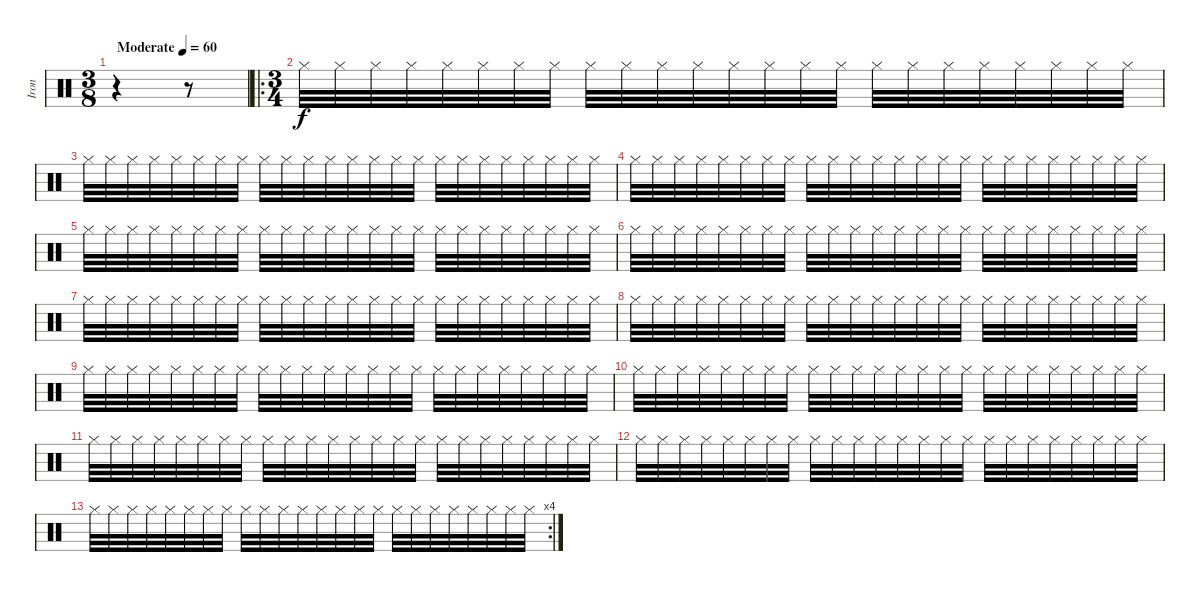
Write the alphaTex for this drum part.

\track ("Iron" "Iron") {instrument percussion}
\staff
\articulation defaults
\ts (3 8)
\tempo (60 "Moderate")
\clef neutral
\ks c
r.4{dy f} r.8 |
\ro
\ts (3 4)
"Hi-Hat (closed)".32 "Hi-Hat (closed)".32 "Hi-Hat (closed)".32 "Hi-Hat (closed)".32 "Hi-Hat (closed)".32 "Hi-Hat (closed)".32 "Hi-Hat (closed)".32 "Hi-Hat (closed)".32 "Hi-Hat (closed)".32 "Hi-Hat (closed)".32 "Hi-Hat (closed)".32 "Hi-Hat (closed)".32 "Hi-Hat (closed)".32 "Hi-Hat (closed)".32 "Hi-Hat (closed)".32 "Hi-Hat (closed)".32 "Hi-Hat (closed)".32 "Hi-Hat (closed)".32 "Hi-Hat (closed)".32 "Hi-Hat (closed)".32 "Hi-Hat (closed)".32 "Hi-Hat (closed)".32 "Hi-Hat (closed)".32 "Hi-Hat (closed)".32 |
"Hi-Hat (closed)".32 "Hi-Hat (closed)".32 "Hi-Hat (closed)".32 "Hi-Hat (closed)".32 "Hi-Hat (closed)".32 "Hi-Hat (closed)".32 "Hi-Hat (closed)".32 "Hi-Hat (closed)".32 "Hi-Hat (closed)".32 "Hi-Hat (closed)".32 "Hi-Hat (closed)".32 "Hi-Hat (closed)".32 "Hi-Hat (closed)".32 "Hi-Hat (closed)".32 "Hi-Hat (closed)".32 "Hi-Hat (closed)".32 "Hi-Hat (closed)".32 "Hi-Hat (closed)".32 "Hi-Hat (closed)".32 "Hi-Hat (closed)".32 "Hi-Hat (closed)".32 "Hi-Hat (closed)".32 "Hi-Hat (closed)".32 "Hi-Hat (closed)".32 |
"Hi-Hat (closed)".32 "Hi-Hat (closed)".32 "Hi-Hat (closed)".32 "Hi-Hat (closed)".32 "Hi-Hat (closed)".32 "Hi-Hat (closed)".32 "Hi-Hat (closed)".32 "Hi-Hat (closed)".32 "Hi-Hat (closed)".32 "Hi-Hat (closed)".32 "Hi-Hat (closed)".32 "Hi-Hat (closed)".32 "Hi-Hat (closed)".32 "Hi-Hat (closed)".32 "Hi-Hat (closed)".32 "Hi-Hat (closed)".32 "Hi-Hat (closed)".32 "Hi-Hat (closed)".32 "Hi-Hat (closed)".32 "Hi-Hat (closed)".32 "Hi-Hat (closed)".32 "Hi-Hat (closed)".32 "Hi-Hat (closed)".32 "Hi-Hat (closed)".32 |
"Hi-Hat (closed)".32 "Hi-Hat (closed)".32 "Hi-Hat (closed)".32 "Hi-Hat (closed)".32 "Hi-Hat (closed)".32 "Hi-Hat (closed)".32 "Hi-Hat (closed)".32 "Hi-Hat (closed)".32 "Hi-Hat (closed)".32 "Hi-Hat (closed)".32 "Hi-Hat (closed)".32 "Hi-Hat (closed)".32 "Hi-Hat (closed)".32 "Hi-Hat (closed)".32 "Hi-Hat (closed)".32 "Hi-Hat (closed)".32 "Hi-Hat (closed)".32 "Hi-Hat (closed)".32 "Hi-Hat (closed)".32 "Hi-Hat (closed)".32 "Hi-Hat (closed)".32 "Hi-Hat (closed)".32 "Hi-Hat (closed)".32 "Hi-Hat (closed)".32 |
"Hi-Hat (closed)".32 "Hi-Hat (closed)".32 "Hi-Hat (closed)".32 "Hi-Hat (closed)".32 "Hi-Hat (closed)".32 "Hi-Hat (closed)".32 "Hi-Hat (closed)".32 "Hi-Hat (closed)".32 "Hi-Hat (closed)".32 "Hi-Hat (closed)".32 "Hi-Hat (closed)".32 "Hi-Hat (closed)".32 "Hi-Hat (closed)".32 "Hi-Hat (closed)".32 "Hi-Hat (closed)".32 "Hi-Hat (closed)".32 "Hi-Hat (closed)".32 "Hi-Hat (closed)".32 "Hi-Hat (closed)".32 "Hi-Hat (closed)".32 "Hi-Hat (closed)".32 "Hi-Hat (closed)".32 "Hi-Hat (closed)".32 "Hi-Hat (closed)".32 |
"Hi-Hat (closed)".32 "Hi-Hat (closed)".32 "Hi-Hat (closed)".32 "Hi-Hat (closed)".32 "Hi-Hat (closed)".32 "Hi-Hat (closed)".32 "Hi-Hat (closed)".32 "Hi-Hat (closed)".32 "Hi-Hat (closed)".32 "Hi-Hat (closed)".32 "Hi-Hat (closed)".32 "Hi-Hat (closed)".32 "Hi-Hat (closed)".32 "Hi-Hat (closed)".32 "Hi-Hat (closed)".32 "Hi-Hat (closed)".32 "Hi-Hat (closed)".32 "Hi-Hat (closed)".32 "Hi-Hat (closed)".32 "Hi-Hat (closed)".32 "Hi-Hat (closed)".32 "Hi-Hat (closed)".32 "Hi-Hat (closed)".32 "Hi-Hat (closed)".32 |
"Hi-Hat (closed)".32 "Hi-Hat (closed)".32 "Hi-Hat (closed)".32 "Hi-Hat (closed)".32 "Hi-Hat (closed)".32 "Hi-Hat (closed)".32 "Hi-Hat (closed)".32 "Hi-Hat (closed)".32 "Hi-Hat (closed)".32 "Hi-Hat (closed)".32 "Hi-Hat (closed)".32 "Hi-Hat (closed)".32 "Hi-Hat (closed)".32 "Hi-Hat (closed)".32 "Hi-Hat (closed)".32 "Hi-Hat (closed)".32 "Hi-Hat (closed)".32 "Hi-Hat (closed)".32 "Hi-Hat (closed)".32 "Hi-Hat (closed)".32 "Hi-Hat (closed)".32 "Hi-Hat (closed)".32 "Hi-Hat (closed)".32 "Hi-Hat (closed)".32 |
"Hi-Hat (closed)".32 "Hi-Hat (closed)".32 "Hi-Hat (closed)".32 "Hi-Hat (closed)".32 "Hi-Hat (closed)".32 "Hi-Hat (closed)".32 "Hi-Hat (closed)".32 "Hi-Hat (closed)".32 "Hi-Hat (closed)".32 "Hi-Hat (closed)".32 "Hi-Hat (closed)".32 "Hi-Hat (closed)".32 "Hi-Hat (closed)".32 "Hi-Hat (closed)".32 "Hi-Hat (closed)".32 "Hi-Hat (closed)".32 "Hi-Hat (closed)".32 "Hi-Hat (closed)".32 "Hi-Hat (closed)".32 "Hi-Hat (closed)".32 "Hi-Hat (closed)".32 "Hi-Hat (closed)".32 "Hi-Hat (closed)".32 "Hi-Hat (closed)".32 |
"Hi-Hat (closed)".32 "Hi-Hat (closed)".32 "Hi-Hat (closed)".32 "Hi-Hat (closed)".32 "Hi-Hat (closed)".32 "Hi-Hat (closed)".32 "Hi-Hat (closed)".32 "Hi-Hat (closed)".32 "Hi-Hat (closed)".32 "Hi-Hat (closed)".32 "Hi-Hat (closed)".32 "Hi-Hat (closed)".32 "Hi-Hat (closed)".32 "Hi-Hat (closed)".32 "Hi-Hat (closed)".32 "Hi-Hat (closed)".32 "Hi-Hat (closed)".32 "Hi-Hat (closed)".32 "Hi-Hat (closed)".32 "Hi-Hat (closed)".32 "Hi-Hat (closed)".32 "Hi-Hat (closed)".32 "Hi-Hat (closed)".32 "Hi-Hat (closed)".32 |
"Hi-Hat (closed)".32 "Hi-Hat (closed)".32 "Hi-Hat (closed)".32 "Hi-Hat (closed)".32 "Hi-Hat (closed)".32 "Hi-Hat (closed)".32 "Hi-Hat (closed)".32 "Hi-Hat (closed)".32 "Hi-Hat (closed)".32 "Hi-Hat (closed)".32 "Hi-Hat (closed)".32 "Hi-Hat (closed)".32 "Hi-Hat (closed)".32 "Hi-Hat (closed)".32 "Hi-Hat (closed)".32 "Hi-Hat (closed)".32 "Hi-Hat (closed)".32 "Hi-Hat (closed)".32 "Hi-Hat (closed)".32 "Hi-Hat (closed)".32 "Hi-Hat (closed)".32 "Hi-Hat (closed)".32 "Hi-Hat (closed)".32 "Hi-Hat (closed)".32 |
"Hi-Hat (closed)".32 "Hi-Hat (closed)".32 "Hi-Hat (closed)".32 "Hi-Hat (closed)".32 "Hi-Hat (closed)".32 "Hi-Hat (closed)".32 "Hi-Hat (closed)".32 "Hi-Hat (closed)".32 "Hi-Hat (closed)".32 "Hi-Hat (closed)".32 "Hi-Hat (closed)".32 "Hi-Hat (closed)".32 "Hi-Hat (closed)".32 "Hi-Hat (closed)".32 "Hi-Hat (closed)".32 "Hi-Hat (closed)".32 "Hi-Hat (closed)".32 "Hi-Hat (closed)".32 "Hi-Hat (closed)".32 "Hi-Hat (closed)".32 "Hi-Hat (closed)".32 "Hi-Hat (closed)".32 "Hi-Hat (closed)".32 "Hi-Hat (closed)".32 |
\rc 4 "Hi-Hat (closed)".32 "Hi-Hat (closed)".32 "Hi-Hat (closed)".32 "Hi-Hat (closed)".32 "Hi-Hat (closed)".32 "Hi-Hat (closed)".32 "Hi-Hat (closed)".32 "Hi-Hat (closed)".32 "Hi-Hat (closed)".32 "Hi-Hat (closed)".32 "Hi-Hat (closed)".32 "Hi-Hat (closed)".32 "Hi-Hat (closed)".32 "Hi-Hat (closed)".32 "Hi-Hat (closed)".32 "Hi-Hat (closed)".32 "Hi-Hat (closed)".32 "Hi-Hat (closed)".32 "Hi-Hat (closed)".32 "Hi-Hat (closed)".32 "Hi-Hat (closed)".32 "Hi-Hat (closed)".32 "Hi-Hat (closed)".32 "Hi-Hat (closed)".32
